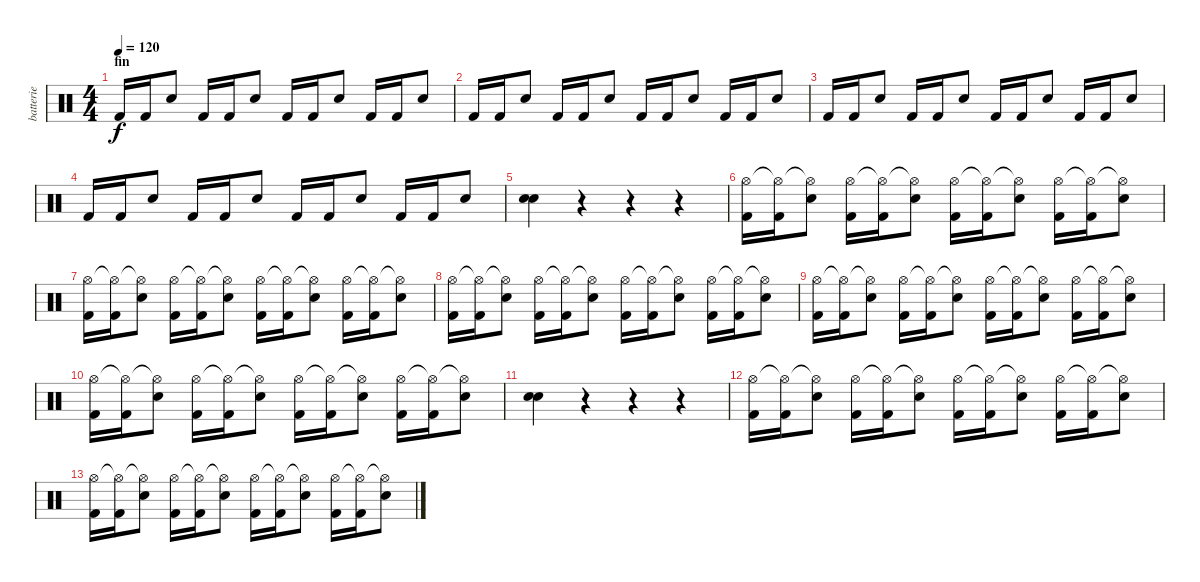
\track ("batterie" "batterie") {instrument percussion}
\staff {score}
\articulation defaults
\ts (4 4)
\section ("" "fin")
\tempo 120
\clef neutral
\ks c "Kick (hit) 2".16{dy f} "Kick (hit) 2".16 "Electric Snare (hit)".8 "Kick (hit) 2".16 "Kick (hit) 2".16 "Electric Snare (hit)".8 "Kick (hit) 2".16 "Kick (hit) 2".16 "Electric Snare (hit)".8 "Kick (hit) 2".16 "Kick (hit) 2".16 "Electric Snare (hit)".8
|
"Kick (hit) 2".16 "Kick (hit) 2".16 "Electric Snare (hit)".8 "Kick (hit) 2".16 "Kick (hit) 2".16 "Electric Snare (hit)".8 "Kick (hit) 2".16 "Kick (hit) 2".16 "Electric Snare (hit)".8 "Kick (hit) 2".16 "Kick (hit) 2".16 "Electric Snare (hit)".8 |
"Kick (hit) 2".16 "Kick (hit) 2".16 "Electric Snare (hit)".8 "Kick (hit) 2".16 "Kick (hit) 2".16 "Electric Snare (hit)".8 "Kick (hit) 2".16 "Kick (hit) 2".16 "Electric Snare (hit)".8 "Kick (hit) 2".16 "Kick (hit) 2".16 "Electric Snare (hit)".8 |
"Kick (hit) 2".16 "Kick (hit) 2".16 "Electric Snare (hit)".8 "Kick (hit) 2".16 "Kick (hit) 2".16 "Electric Snare (hit)".8 "Kick (hit) 2".16 "Kick (hit) 2".16 "Electric Snare (hit)".8 "Kick (hit) 2".16 "Kick (hit) 2".16 "Electric Snare (hit)".8 |
("Snare (hit) 2" "Electric Snare (hit)").4 r.4 r.4 r.4 |
("Hi-Hat (open)" "Kick (hit) 2").16 ("Hi-Hat (open)"{t} "Kick (hit) 2").16 ("Hi-Hat (open)"{t} "Electric Snare (hit)").8 ("Hi-Hat (open)" "Kick (hit) 2").16 ("Hi-Hat (open)"{t} "Kick (hit) 2").16 ("Hi-Hat (open)"{t} "Electric Snare (hit)").8 ("Hi-Hat (open)" "Kick (hit) 2").16 ("Hi-Hat (open)"{t} "Kick (hit) 2").16 ("Hi-Hat (open)"{t} "Electric Snare (hit)").8 ("Hi-Hat (open)" "Kick (hit) 2").16 ("Hi-Hat (open)"{t} "Kick (hit) 2").16 ("Hi-Hat (open)"{t} "Electric Snare (hit)").8 |
("Hi-Hat (open)" "Kick (hit) 2").16 ("Hi-Hat (open)"{t} "Kick (hit) 2").16 ("Hi-Hat (open)"{t} "Electric Snare (hit)").8 ("Hi-Hat (open)" "Kick (hit) 2").16 ("Hi-Hat (open)"{t} "Kick (hit) 2").16 ("Hi-Hat (open)"{t} "Electric Snare (hit)").8 ("Hi-Hat (open)" "Kick (hit) 2").16 ("Hi-Hat (open)"{t} "Kick (hit) 2").16 ("Hi-Hat (open)"{t} "Electric Snare (hit)").8 ("Hi-Hat (open)" "Kick (hit) 2").16 ("Hi-Hat (open)"{t} "Kick (hit) 2").16 ("Hi-Hat (open)"{t} "Electric Snare (hit)").8 |
("Hi-Hat (open)" "Kick (hit) 2").16 ("Hi-Hat (open)"{t} "Kick (hit) 2").16 ("Hi-Hat (open)"{t} "Electric Snare (hit)").8 ("Hi-Hat (open)" "Kick (hit) 2").16 ("Hi-Hat (open)"{t} "Kick (hit) 2").16 ("Hi-Hat (open)"{t} "Electric Snare (hit)").8 ("Hi-Hat (open)" "Kick (hit) 2").16 ("Hi-Hat (open)"{t} "Kick (hit) 2").16 ("Hi-Hat (open)"{t} "Electric Snare (hit)").8 ("Hi-Hat (open)" "Kick (hit) 2").16 ("Hi-Hat (open)"{t} "Kick (hit) 2").16 ("Hi-Hat (open)"{t} "Electric Snare (hit)").8 |
("Hi-Hat (open)" "Kick (hit) 2").16 ("Hi-Hat (open)"{t} "Kick (hit) 2").16 ("Hi-Hat (open)"{t} "Electric Snare (hit)").8 ("Hi-Hat (open)" "Kick (hit) 2").16 ("Hi-Hat (open)"{t} "Kick (hit) 2").16 ("Hi-Hat (open)"{t} "Electric Snare (hit)").8 ("Hi-Hat (open)" "Kick (hit) 2").16 ("Hi-Hat (open)"{t} "Kick (hit) 2").16 ("Hi-Hat (open)"{t} "Electric Snare (hit)").8 ("Hi-Hat (open)" "Kick (hit) 2").16 ("Hi-Hat (open)"{t} "Kick (hit) 2").16 ("Hi-Hat (open)"{t} "Electric Snare (hit)").8 |
("Hi-Hat (open)" "Kick (hit) 2").16 ("Hi-Hat (open)"{t} "Kick (hit) 2").16 ("Hi-Hat (open)"{t} "Electric Snare (hit)").8 ("Hi-Hat (open)" "Kick (hit) 2").16 ("Hi-Hat (open)"{t} "Kick (hit) 2").16 ("Hi-Hat (open)"{t} "Electric Snare (hit)").8 ("Hi-Hat (open)" "Kick (hit) 2").16 ("Hi-Hat (open)"{t} "Kick (hit) 2").16 ("Hi-Hat (open)"{t} "Electric Snare (hit)").8 ("Hi-Hat (open)" "Kick (hit) 2").16 ("Hi-Hat (open)"{t} "Kick (hit) 2").16 ("Hi-Hat (open)"{t} "Electric Snare (hit)").8 |
("Electric Snare (hit)" "Snare (hit) 2").4 r.4 r.4 r.4 |
("Hi-Hat (open)" "Kick (hit) 2").16 ("Hi-Hat (open)"{t} "Kick (hit) 2").16 ("Hi-Hat (open)"{t} "Electric Snare (hit)").8 ("Hi-Hat (open)" "Kick (hit) 2").16 ("Hi-Hat (open)"{t} "Kick (hit) 2").16 ("Hi-Hat (open)"{t} "Electric Snare (hit)").8 ("Hi-Hat (open)" "Kick (hit) 2").16 ("Hi-Hat (open)"{t} "Kick (hit) 2").16 ("Hi-Hat (open)"{t} "Electric Snare (hit)").8 ("Hi-Hat (open)" "Kick (hit) 2").16 ("Hi-Hat (open)"{t} "Kick (hit) 2").16 ("Hi-Hat (open)"{t} "Electric Snare (hit)").8 |
("Hi-Hat (open)" "Kick (hit) 2").16 ("Hi-Hat (open)"{t} "Kick (hit) 2").16 ("Hi-Hat (open)"{t} "Electric Snare (hit)").8 ("Hi-Hat (open)" "Kick (hit) 2").16 ("Hi-Hat (open)"{t} "Kick (hit) 2").16 ("Hi-Hat (open)"{t} "Electric Snare (hit)").8 ("Hi-Hat (open)" "Kick (hit) 2").16 ("Hi-Hat (open)"{t} "Kick (hit) 2").16 ("Hi-Hat (open)"{t} "Electric Snare (hit)").8 ("Hi-Hat (open)" "Kick (hit) 2").16 ("Hi-Hat (open)"{t} "Kick (hit) 2").16 ("Hi-Hat (open)"{t} "Electric Snare (hit)").8
